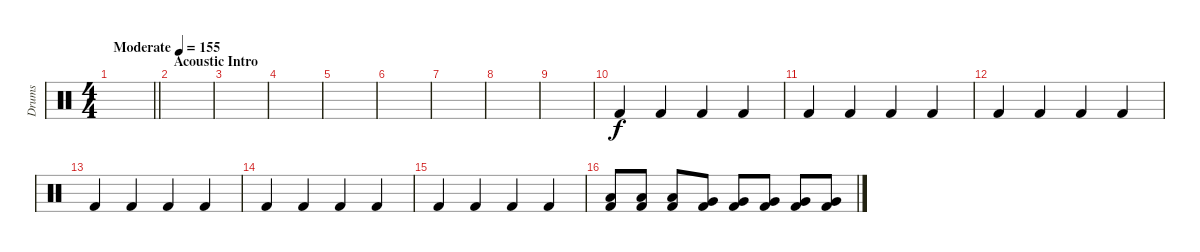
\track ("Drums" "Drums") {instrument percussion}
\staff {score}
\articulation defaults
\ts (4 4)
\tempo (155 "Moderate")
\clef neutral
\barLineRight lightlight
\ks c
|
\section ("" "Acoustic Intro")
|
|
|
|
|
|
|
|
"Kick (hit) 2".4 "Kick (hit) 2".4 "Kick (hit) 2".4 "Kick (hit) 2".4 |
"Kick (hit) 2".4 "Kick (hit) 2".4 "Kick (hit) 2".4 "Kick (hit) 2".4 |
"Kick (hit) 2".4 "Kick (hit) 2".4 "Kick (hit) 2".4 "Kick (hit) 2".4 |
"Kick (hit) 2".4 "Kick (hit) 2".4 "Kick (hit) 2".4 "Kick (hit) 2".4 |
"Kick (hit) 2".4 "Kick (hit) 2".4 "Kick (hit) 2".4 "Kick (hit) 2".4 |
"Kick (hit) 2".4 "Kick (hit) 2".4 "Kick (hit) 2".4 "Kick (hit) 2".4 |
("Low Floor Tom (hit)" "Kick (hit) 2").8 ("Low Floor Tom (hit)" "Kick (hit) 2").8 ("Low Floor Tom (hit)" "Kick (hit) 2").8 ("Very Low Tom (hit)" "Kick (hit) 2").8 ("Very Low Tom (hit)" "Kick (hit) 2").8 ("Very Low Tom (hit)" "Kick (hit) 2").8 ("Very Low Tom (hit)" "Kick (hit) 2").8 ("Very Low Tom (hit)" "Kick (hit) 2").8
